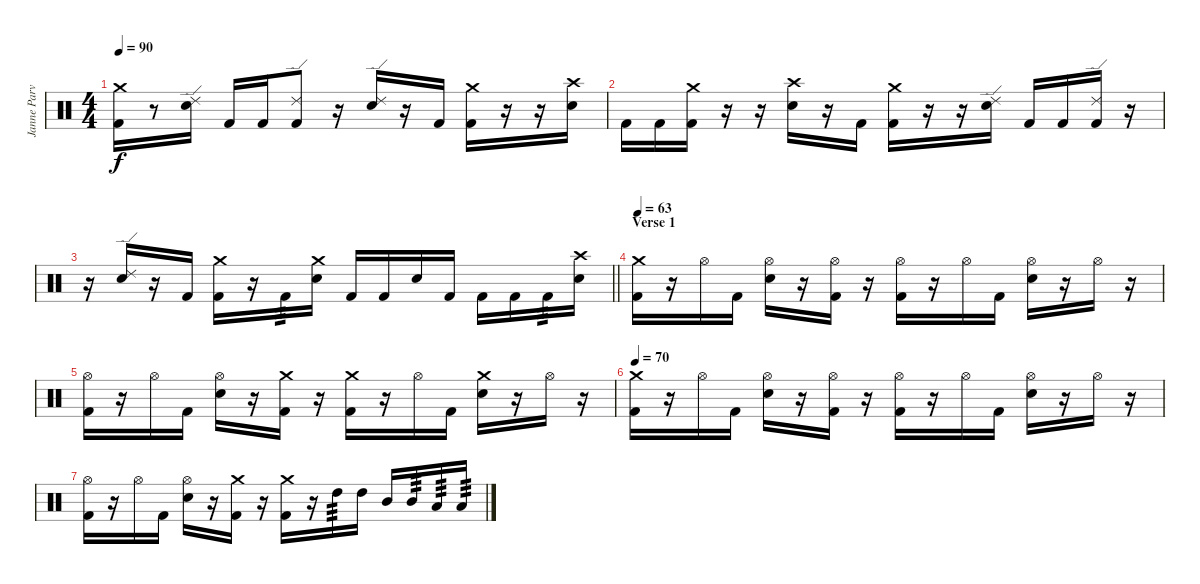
\track ("Janne Parviainen" "Janne Parv") {instrument percussion}
\staff {score}
\articulation defaults
\ts (4 4)
\tempo 90
\clef neutral
\ks c
("Crash medium (hit)" "Kick (hit) 2").16{dy f} r.8 ("Ride (edge) 2" "Snare (hit) 2").16 "Kick (hit) 2".16 "Kick (hit) 2".16 ("Ride (edge) 2" "Kick (hit) 2").8 r.16 ("Ride (edge) 2" "Snare (hit) 2").16 r.16 "Kick (hit) 2".16 ("Crash medium (hit)" "Kick (hit) 2").16 r.16 r.16 ("Crash high (hit)" "Snare (hit) 2").16 |
"Kick (hit) 2".16 "Kick (hit) 2".16 ("Crash medium (hit)" "Kick (hit) 2").16 r.16 r.16 ("Crash high (hit)" "Snare (hit) 2").16 r.16 "Kick (hit) 2".16 ("Crash medium (hit)" "Kick (hit) 2").16 r.16 r.16 ("Ride (edge) 2" "Snare (hit) 2").16 "Kick (hit) 2".16 "Kick (hit) 2".16 ("Ride (edge) 2" "Kick (hit) 2").16 r.16 |
\barLineRight lightlight
r.16 ("Ride (edge) 2" "Snare (hit) 2").16 r.16 "Kick (hit) 2".16 ("Crash medium (hit)" "Kick (hit) 2").16 r.16 "Kick (hit) 2".16{tp 3} ("Crash medium (hit)" "Snare (hit) 2").16 "Kick (hit) 2".16 "Kick (hit) 2".16 "Snare (hit) 2".16 "Kick (hit) 2".16 "Kick (hit) 2".16 "Kick (hit) 2".16 "Kick (hit) 2".16{tp 3} ("Crash high (hit)" "Snare (hit) 2").16 |
\section ("" "Verse 1")
\tempo 63
("Crash medium (hit)" "Kick (hit) 2").16 r.16 "Hi-Hat (open)".16 "Kick (hit) 2".16 ("Hi-Hat (open)" "Snare (hit) 2").16 r.16 ("Hi-Hat (open)" "Kick (hit) 2").16 r.16 ("Hi-Hat (open)" "Kick (hit) 2").16 r.16 "Hi-Hat (open)".16 "Kick (hit) 2".16 ("Hi-Hat (open)" "Snare (hit) 2").16 r.16 "Hi-Hat (open)".16 r.16 |
("Hi-Hat (open)" "Kick (hit) 2").16 r.16 "Hi-Hat (open)".16 "Kick (hit) 2".16 ("Hi-Hat (open)" "Snare (hit) 2").16 r.16 ("Crash medium (hit)" "Kick (hit) 2").16 r.16 ("Crash medium (hit)" "Kick (hit) 2").16 r.16 "Hi-Hat (open)".16 "Kick (hit) 2".16 ("Crash medium (hit)" "Snare (hit) 2").16 r.16 "Hi-Hat (open)".16 r.16 |
\tempo 70
("Crash medium (hit)" "Kick (hit) 2").16 r.16 "Hi-Hat (open)".16 "Kick (hit) 2".16 ("Hi-Hat (open)" "Snare (hit) 2").16 r.16 ("Hi-Hat (open)" "Kick (hit) 2").16 r.16 ("Hi-Hat (open)" "Kick (hit) 2").16 r.16 "Hi-Hat (open)".16 "Kick (hit) 2".16 ("Hi-Hat (open)" "Snare (hit) 2").16 r.16 "Hi-Hat (open)".16 r.16 |
("Hi-Hat (open)" "Kick (hit) 2").16 r.16 "Hi-Hat (open)".16 "Kick (hit) 2".16 ("Hi-Hat (open)" "Snare (hit) 2").16 r.16 ("Crash medium (hit)" "Kick (hit) 2").16 r.16 ("Crash medium (hit)" "Kick (hit) 2").16 r.16 "High Tom (hit)".16{tp 3} "High Tom (hit)".16 "Mid Tom (hit)".16 "Mid Tom (hit)".16{tp 3} "Low Tom (hit)".16{tp 3} "Low Tom (hit)".16{tp 3}
